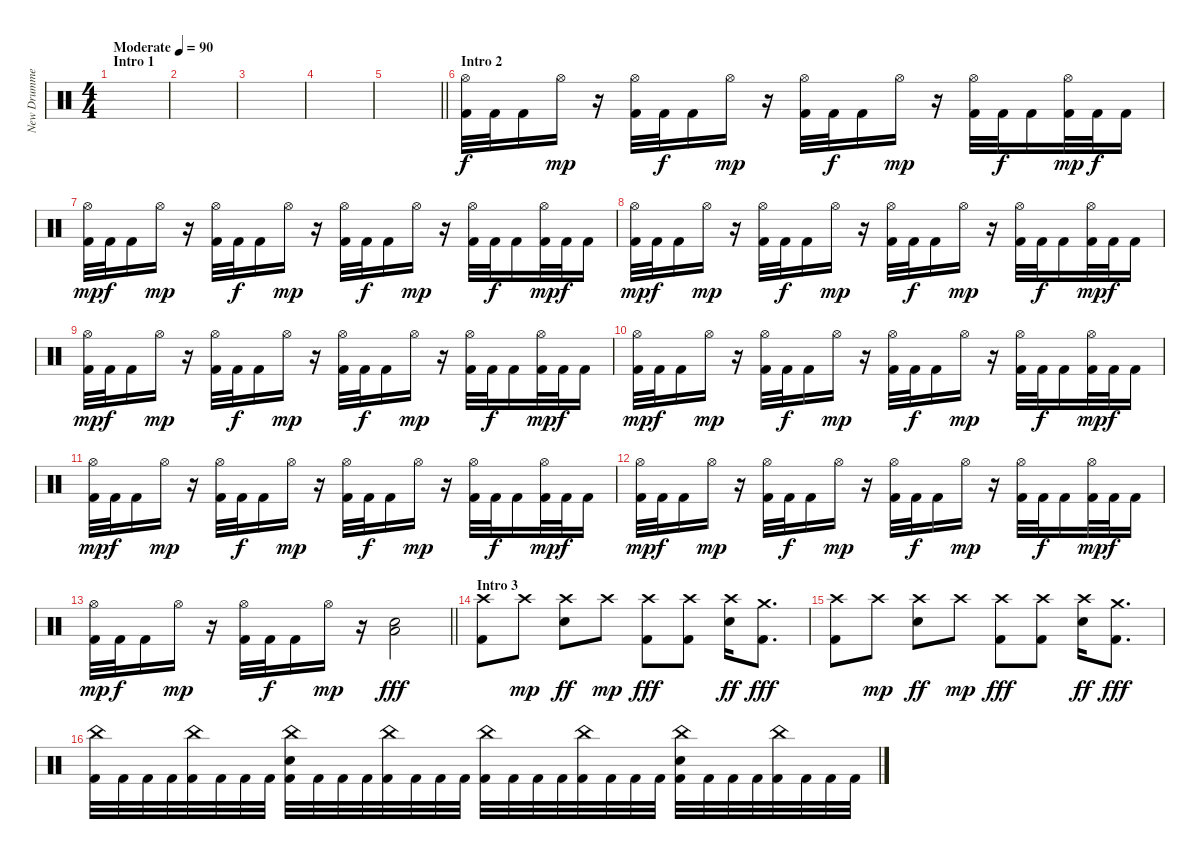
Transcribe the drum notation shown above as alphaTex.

\track ("New Drummer" "New Drumme") {instrument percussion}
\staff {score}
\articulation defaults
\ts (4 4)
\section ("" "Intro 1")
\tempo (90 "Moderate")
\clef neutral
\ks c
|
|
|
|
\barLineRight lightlight
|
\section ("" "Intro 2")
("Hi-Hat (open)" "Kick (hit) 2").32 "Kick (hit) 2".32{dy f} "Kick (hit) 2".16 "Hi-Hat (open)".16{dy mp} r.16 ("Hi-Hat (open)" "Kick (hit) 2").32 "Kick (hit) 2".32{dy f} "Kick (hit) 2".16 "Hi-Hat (open)".16{dy mp} r.16 ("Hi-Hat (open)" "Kick (hit) 2").32 "Kick (hit) 2".32{dy f} "Kick (hit) 2".16 "Hi-Hat (open)".16{dy mp} r.16 ("Hi-Hat (open)" "Kick (hit) 2").32 "Kick (hit) 2".32{dy f} "Kick (hit) 2".16 ("Hi-Hat (open)" "Kick (hit) 2").32{dy mp} "Kick (hit) 2".32{dy f} "Kick (hit) 2".16 |
("Hi-Hat (open)" "Kick (hit) 2").32{dy mp} "Kick (hit) 2".32{dy f} "Kick (hit) 2".16 "Hi-Hat (open)".16{dy mp} r.16 ("Hi-Hat (open)" "Kick (hit) 2").32 "Kick (hit) 2".32{dy f} "Kick (hit) 2".16 "Hi-Hat (open)".16{dy mp} r.16 ("Hi-Hat (open)" "Kick (hit) 2").32 "Kick (hit) 2".32{dy f} "Kick (hit) 2".16 "Hi-Hat (open)".16{dy mp} r.16 ("Hi-Hat (open)" "Kick (hit) 2").32 "Kick (hit) 2".32{dy f} "Kick (hit) 2".16 ("Hi-Hat (open)" "Kick (hit) 2").32{dy mp} "Kick (hit) 2".32{dy f} "Kick (hit) 2".16 |
("Hi-Hat (open)" "Kick (hit) 2").32{dy mp} "Kick (hit) 2".32{dy f} "Kick (hit) 2".16 "Hi-Hat (open)".16{dy mp} r.16 ("Hi-Hat (open)" "Kick (hit) 2").32 "Kick (hit) 2".32{dy f} "Kick (hit) 2".16 "Hi-Hat (open)".16{dy mp} r.16 ("Hi-Hat (open)" "Kick (hit) 2").32 "Kick (hit) 2".32{dy f} "Kick (hit) 2".16 "Hi-Hat (open)".16{dy mp} r.16 ("Hi-Hat (open)" "Kick (hit) 2").32 "Kick (hit) 2".32{dy f} "Kick (hit) 2".16 ("Hi-Hat (open)" "Kick (hit) 2").32{dy mp} "Kick (hit) 2".32{dy f} "Kick (hit) 2".16 |
("Hi-Hat (open)" "Kick (hit) 2").32{dy mp} "Kick (hit) 2".32{dy f} "Kick (hit) 2".16 "Hi-Hat (open)".16{dy mp} r.16 ("Hi-Hat (open)" "Kick (hit) 2").32 "Kick (hit) 2".32{dy f} "Kick (hit) 2".16 "Hi-Hat (open)".16{dy mp} r.16 ("Hi-Hat (open)" "Kick (hit) 2").32 "Kick (hit) 2".32{dy f} "Kick (hit) 2".16 "Hi-Hat (open)".16{dy mp} r.16 ("Hi-Hat (open)" "Kick (hit) 2").32 "Kick (hit) 2".32{dy f} "Kick (hit) 2".16 ("Hi-Hat (open)" "Kick (hit) 2").32{dy mp} "Kick (hit) 2".32{dy f} "Kick (hit) 2".16 |
("Hi-Hat (open)" "Kick (hit) 2").32{dy mp} "Kick (hit) 2".32{dy f} "Kick (hit) 2".16 "Hi-Hat (open)".16{dy mp} r.16 ("Hi-Hat (open)" "Kick (hit) 2").32 "Kick (hit) 2".32{dy f} "Kick (hit) 2".16 "Hi-Hat (open)".16{dy mp} r.16 ("Hi-Hat (open)" "Kick (hit) 2").32 "Kick (hit) 2".32{dy f} "Kick (hit) 2".16 "Hi-Hat (open)".16{dy mp} r.16 ("Hi-Hat (open)" "Kick (hit) 2").32 "Kick (hit) 2".32{dy f} "Kick (hit) 2".16 ("Hi-Hat (open)" "Kick (hit) 2").32{dy mp} "Kick (hit) 2".32{dy f} "Kick (hit) 2".16 |
("Hi-Hat (open)" "Kick (hit) 2").32{dy mp} "Kick (hit) 2".32{dy f} "Kick (hit) 2".16 "Hi-Hat (open)".16{dy mp} r.16 ("Hi-Hat (open)" "Kick (hit) 2").32 "Kick (hit) 2".32{dy f} "Kick (hit) 2".16 "Hi-Hat (open)".16{dy mp} r.16 ("Hi-Hat (open)" "Kick (hit) 2").32 "Kick (hit) 2".32{dy f} "Kick (hit) 2".16 "Hi-Hat (open)".16{dy mp} r.16 ("Hi-Hat (open)" "Kick (hit) 2").32 "Kick (hit) 2".32{dy f} "Kick (hit) 2".16 ("Hi-Hat (open)" "Kick (hit) 2").32{dy mp} "Kick (hit) 2".32{dy f} "Kick (hit) 2".16 |
("Hi-Hat (open)" "Kick (hit) 2").32{dy mp} "Kick (hit) 2".32{dy f} "Kick (hit) 2".16 "Hi-Hat (open)".16{dy mp} r.16 ("Hi-Hat (open)" "Kick (hit) 2").32 "Kick (hit) 2".32{dy f} "Kick (hit) 2".16 "Hi-Hat (open)".16{dy mp} r.16 ("Hi-Hat (open)" "Kick (hit) 2").32 "Kick (hit) 2".32{dy f} "Kick (hit) 2".16 "Hi-Hat (open)".16{dy mp} r.16 ("Hi-Hat (open)" "Kick (hit) 2").32 "Kick (hit) 2".32{dy f} "Kick (hit) 2".16 ("Hi-Hat (open)" "Kick (hit) 2").32{dy mp} "Kick (hit) 2".32{dy f} "Kick (hit) 2".16 |
\barLineRight lightlight
("Hi-Hat (open)" "Kick (hit) 2").32{dy mp} "Kick (hit) 2".32{dy f} "Kick (hit) 2".16 "Hi-Hat (open)".16{dy mp} r.16 ("Hi-Hat (open)" "Kick (hit) 2").32 "Kick (hit) 2".32{dy f} "Kick (hit) 2".16 "Hi-Hat (open)".16{dy mp} r.16 ("Electric Snare (hit)" "Low Floor Tom (hit)").2{dy fff} |
\section ("" "Intro 3")
("Crash high (hit)" "Kick (hit) 2").8 "Crash high (hit)".8{dy mp} ("Crash high (hit)" "Electric Snare (hit)").8{dy ff} "Crash high (hit)".8{dy mp} ("Crash high (hit)" "Kick (hit) 2").8{dy fff} ("Crash high (hit)" "Kick (hit) 2").8 ("Crash high (hit)" "Electric Snare (hit)").16{dy ff} ("Crash medium (hit)" "Kick (hit) 2").8{d dy fff} |
("Crash high (hit)" "Kick (hit) 2").8 "Crash high (hit)".8{dy mp} ("Crash high (hit)" "Electric Snare (hit)").8{dy ff} "Crash high (hit)".8{dy mp} ("Crash high (hit)" "Kick (hit) 2").8{dy fff} ("Crash high (hit)" "Kick (hit) 2").8 ("Crash high (hit)" "Electric Snare (hit)").16{dy ff} ("Crash medium (hit)" "Kick (hit) 2").8{d dy fff} |
("China (hit)" "Kick (hit) 2").32 "Kick (hit) 2".32 "Kick (hit) 2".32 "Kick (hit) 2".32 ("China (hit)" "Kick (hit) 2").32 "Kick (hit) 2".32 "Kick (hit) 2".32 "Kick (hit) 2".32 ("China (hit)" "Electric Snare (hit)" "Kick (hit) 2").32 "Kick (hit) 2".32 "Kick (hit) 2".32 "Kick (hit) 2".32 ("China (hit)" "Kick (hit) 2").32 "Kick (hit) 2".32 "Kick (hit) 2".32 "Kick (hit) 2".32 ("China (hit)" "Kick (hit) 2").32 "Kick (hit) 2".32 "Kick (hit) 2".32 "Kick (hit) 2".32 ("China (hit)" "Kick (hit) 2").32 "Kick (hit) 2".32 "Kick (hit) 2".32 "Kick (hit) 2".32 ("China (hit)" "Electric Snare (hit)" "Kick (hit) 2").32 "Kick (hit) 2".32 "Kick (hit) 2".32 "Kick (hit) 2".32 ("China (hit)" "Kick (hit) 2").32 "Kick (hit) 2".32 "Kick (hit) 2".32 "Kick (hit) 2".32
